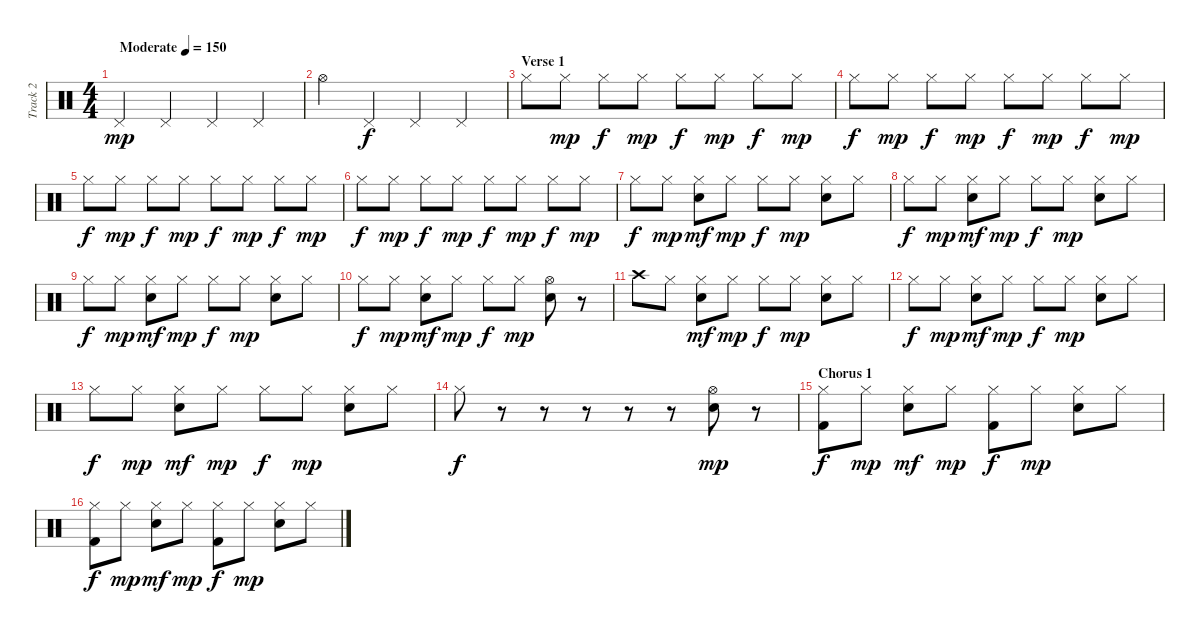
\track ("Track 2" "Track 2") {instrument percussion}
\staff {score}
\articulation defaults
\ts (4 4)
\tempo (150 "Moderate")
\clef neutral
\ks c "Pedal Hi-Hat (hit)".4{dy mp} "Pedal Hi-Hat (hit)".4 "Pedal Hi-Hat (hit)".4 "Pedal Hi-Hat (hit)".4
|
"Hi-Hat (open)".4 "Pedal Hi-Hat (hit)".4{dy f} "Pedal Hi-Hat (hit)".4 "Pedal Hi-Hat (hit)".4 |
\section ("" "Verse 1")
"Hi-Hat (closed)".8 "Hi-Hat (closed)".8{dy mp} "Hi-Hat (closed)".8{dy f} "Hi-Hat (closed)".8{dy mp} "Hi-Hat (closed)".8{dy f} "Hi-Hat (closed)".8{dy mp} "Hi-Hat (closed)".8{dy f} "Hi-Hat (closed)".8{dy mp} |
"Hi-Hat (closed)".8{dy f} "Hi-Hat (closed)".8{dy mp} "Hi-Hat (closed)".8{dy f} "Hi-Hat (closed)".8{dy mp} "Hi-Hat (closed)".8{dy f} "Hi-Hat (closed)".8{dy mp} "Hi-Hat (closed)".8{dy f} "Hi-Hat (closed)".8{dy mp} |
"Hi-Hat (closed)".8{dy f} "Hi-Hat (closed)".8{dy mp} "Hi-Hat (closed)".8{dy f} "Hi-Hat (closed)".8{dy mp} "Hi-Hat (closed)".8{dy f} "Hi-Hat (closed)".8{dy mp} "Hi-Hat (closed)".8{dy f} "Hi-Hat (closed)".8{dy mp} |
"Hi-Hat (closed)".8{dy f} "Hi-Hat (closed)".8{dy mp} "Hi-Hat (closed)".8{dy f} "Hi-Hat (closed)".8{dy mp} "Hi-Hat (closed)".8{dy f} "Hi-Hat (closed)".8{dy mp} "Hi-Hat (closed)".8{dy f} "Hi-Hat (closed)".8{dy mp} |
"Hi-Hat (closed)".8{dy f} "Hi-Hat (closed)".8{dy mp} ("Hi-Hat (closed)" "Electric Snare (hit)").8{dy mf} "Hi-Hat (closed)".8{dy mp} "Hi-Hat (closed)".8{dy f} "Hi-Hat (closed)".8{dy mp} ("Hi-Hat (closed)" "Electric Snare (hit)").8 "Hi-Hat (closed)".8 |
"Hi-Hat (closed)".8{dy f} "Hi-Hat (closed)".8{dy mp} ("Hi-Hat (closed)" "Electric Snare (hit)").8{dy mf} "Hi-Hat (closed)".8{dy mp} "Hi-Hat (closed)".8{dy f} "Hi-Hat (closed)".8{dy mp} ("Hi-Hat (closed)" "Electric Snare (hit)").8 "Hi-Hat (closed)".8 |
"Hi-Hat (closed)".8{dy f} "Hi-Hat (closed)".8{dy mp} ("Hi-Hat (closed)" "Electric Snare (hit)").8{dy mf} "Hi-Hat (closed)".8{dy mp} "Hi-Hat (closed)".8{dy f} "Hi-Hat (closed)".8{dy mp} ("Hi-Hat (closed)" "Electric Snare (hit)").8 "Hi-Hat (closed)".8 |
"Hi-Hat (closed)".8{dy f} "Hi-Hat (closed)".8{dy mp} ("Hi-Hat (closed)" "Electric Snare (hit)").8{dy mf} "Hi-Hat (closed)".8{dy mp} "Hi-Hat (closed)".8{dy f} "Hi-Hat (closed)".8{dy mp} ("Hi-Hat (open)" "Electric Snare (hit)").8 r.8 |
"Crash high (hit)".8 "Hi-Hat (closed)".8 ("Hi-Hat (closed)" "Electric Snare (hit)").8{dy mf} "Hi-Hat (closed)".8{dy mp} "Hi-Hat (closed)".8{dy f} "Hi-Hat (closed)".8{dy mp} ("Hi-Hat (closed)" "Electric Snare (hit)").8 "Hi-Hat (closed)".8 |
"Hi-Hat (closed)".8{dy f} "Hi-Hat (closed)".8{dy mp} ("Hi-Hat (closed)" "Electric Snare (hit)").8{dy mf} "Hi-Hat (closed)".8{dy mp} "Hi-Hat (closed)".8{dy f} "Hi-Hat (closed)".8{dy mp} ("Hi-Hat (closed)" "Electric Snare (hit)").8 "Hi-Hat (closed)".8 |
"Hi-Hat (closed)".8{dy f} "Hi-Hat (closed)".8{dy mp} ("Hi-Hat (closed)" "Electric Snare (hit)").8{dy mf} "Hi-Hat (closed)".8{dy mp} "Hi-Hat (closed)".8{dy f} "Hi-Hat (closed)".8{dy mp} ("Hi-Hat (closed)" "Electric Snare (hit)").8 "Hi-Hat (closed)".8 |
"Hi-Hat (closed)".8{dy f} r.8 r.8 r.8 r.8 r.8 ("Hi-Hat (open)" "Electric Snare (hit)").8{dy mp} r.8 |
\section ("" "Chorus 1")
("Hi-Hat (closed)" "Kick (hit) 2").8{dy f} "Hi-Hat (closed)".8{dy mp} ("Hi-Hat (closed)" "Electric Snare (hit)").8{dy mf} "Hi-Hat (closed)".8{dy mp} ("Hi-Hat (closed)" "Kick (hit) 2").8{dy f} "Hi-Hat (closed)".8{dy mp} ("Hi-Hat (closed)" "Electric Snare (hit)").8 "Hi-Hat (closed)".8 |
("Hi-Hat (closed)" "Kick (hit) 2").8{dy f} "Hi-Hat (closed)".8{dy mp} ("Hi-Hat (closed)" "Electric Snare (hit)").8{dy mf} "Hi-Hat (closed)".8{dy mp} ("Hi-Hat (closed)" "Kick (hit) 2").8{dy f} "Hi-Hat (closed)".8{dy mp} ("Hi-Hat (closed)" "Electric Snare (hit)").8 "Hi-Hat (closed)".8
